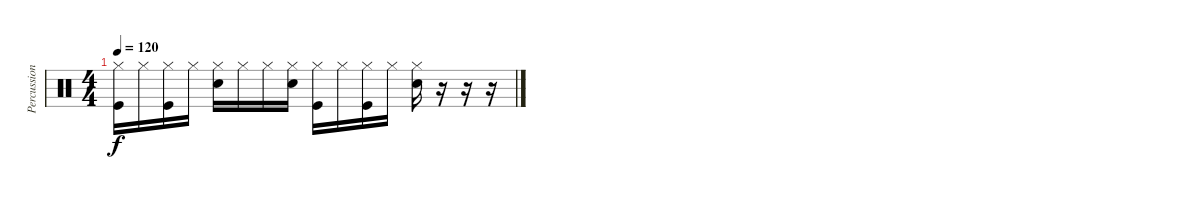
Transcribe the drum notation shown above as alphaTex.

\track ("Percussion" "Percussion") {instrument percussion}
\staff {score}
\articulation defaults
\ts (4 4)
\tempo 120
\clef neutral
\ks c
("Hi-Hat (closed)" "Kick (hit)").16{dy f} "Hi-Hat (closed)".16 ("Hi-Hat (closed)" "Kick (hit)").16 "Hi-Hat (closed)".16 ("Hi-Hat (closed)" "Snare (hit) 2").16 "Hi-Hat (closed)".16 "Hi-Hat (closed)".16 ("Hi-Hat (closed)" "Snare (hit) 2").16 ("Hi-Hat (closed)" "Kick (hit)").16 "Hi-Hat (closed)".16 ("Hi-Hat (closed)" "Kick (hit)").16 "Hi-Hat (closed)".16 ("Hi-Hat (closed)" "Snare (hit) 2").16 r.16 r.16 r.16
